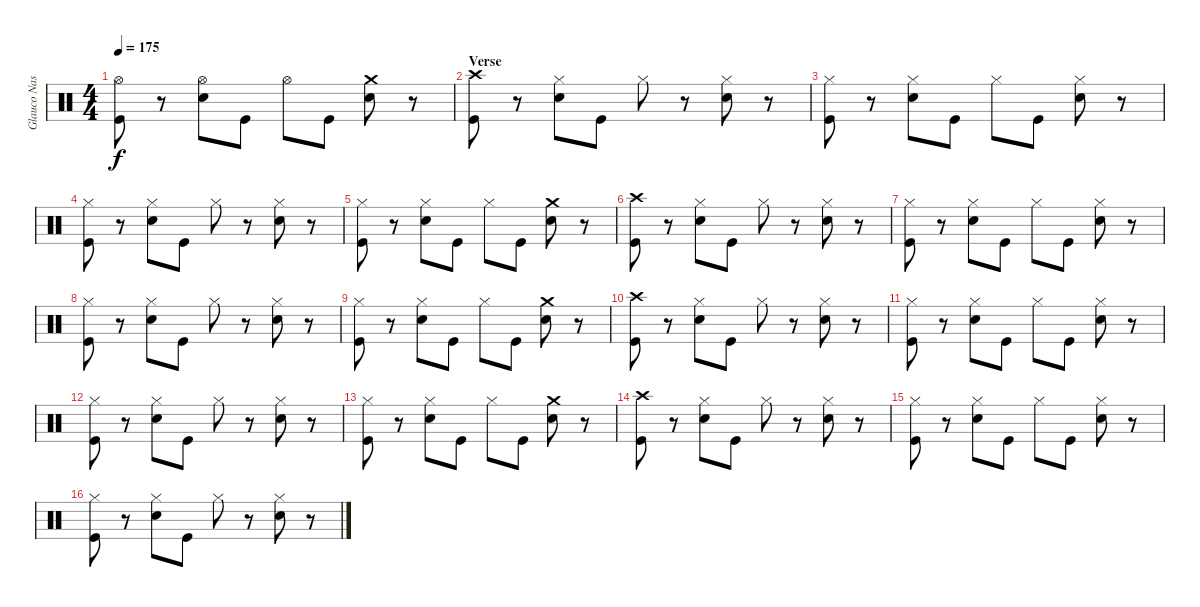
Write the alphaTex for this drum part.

\track ("Glauco Nastácia" "Glauco Nas") {instrument percussion}
\staff {score}
\articulation defaults
\ts (4 4)
\tempo 175
\clef neutral
\ks c
("Hi-Hat (open)" "Kick (hit)").8{dy f} r.8 ("Hi-Hat (open)" "Electric Snare (hit)").8 "Kick (hit)".8 "Hi-Hat (open)".8 "Kick (hit)".8 ("Crash medium (hit)" "Electric Snare (hit)").8 r.8 |
\section ("" "Verse")
("Crash high (hit)" "Kick (hit)").8 r.8 ("Hi-Hat (closed)" "Electric Snare (hit)").8 "Kick (hit)".8 "Hi-Hat (closed)".8 r.8 ("Hi-Hat (closed)" "Electric Snare (hit)").8 r.8 |
("Hi-Hat (closed)" "Kick (hit)").8 r.8 ("Hi-Hat (closed)" "Electric Snare (hit)").8 "Kick (hit)".8 "Hi-Hat (closed)".8 "Kick (hit)".8 ("Hi-Hat (closed)" "Electric Snare (hit)").8 r.8 |
("Hi-Hat (closed)" "Kick (hit)").8 r.8 ("Hi-Hat (closed)" "Electric Snare (hit)").8 "Kick (hit)".8 "Hi-Hat (closed)".8 r.8 ("Hi-Hat (closed)" "Electric Snare (hit)").8 r.8 |
("Hi-Hat (closed)" "Kick (hit)").8 r.8 ("Hi-Hat (closed)" "Electric Snare (hit)").8 "Kick (hit)".8 "Hi-Hat (closed)".8 "Kick (hit)".8 ("Crash medium (hit)" "Electric Snare (hit)").8 r.8 |
("Crash high (hit)" "Kick (hit)").8 r.8 ("Hi-Hat (closed)" "Electric Snare (hit)").8 "Kick (hit)".8 "Hi-Hat (closed)".8 r.8 ("Hi-Hat (closed)" "Electric Snare (hit)").8 r.8 |
("Hi-Hat (closed)" "Kick (hit)").8 r.8 ("Hi-Hat (closed)" "Electric Snare (hit)").8 "Kick (hit)".8 "Hi-Hat (closed)".8 "Kick (hit)".8 ("Hi-Hat (closed)" "Electric Snare (hit)").8 r.8 |
("Hi-Hat (closed)" "Kick (hit)").8 r.8 ("Hi-Hat (closed)" "Electric Snare (hit)").8 "Kick (hit)".8 "Hi-Hat (closed)".8 r.8 ("Hi-Hat (closed)" "Electric Snare (hit)").8 r.8 |
("Hi-Hat (closed)" "Kick (hit)").8 r.8 ("Hi-Hat (closed)" "Electric Snare (hit)").8 "Kick (hit)".8 "Hi-Hat (closed)".8 "Kick (hit)".8 ("Crash medium (hit)" "Electric Snare (hit)").8 r.8 |
("Crash high (hit)" "Kick (hit)").8 r.8 ("Hi-Hat (closed)" "Electric Snare (hit)").8 "Kick (hit)".8 "Hi-Hat (closed)".8 r.8 ("Hi-Hat (closed)" "Electric Snare (hit)").8 r.8 |
("Hi-Hat (closed)" "Kick (hit)").8 r.8 ("Hi-Hat (closed)" "Electric Snare (hit)").8 "Kick (hit)".8 "Hi-Hat (closed)".8 "Kick (hit)".8 ("Hi-Hat (closed)" "Electric Snare (hit)").8 r.8 |
("Hi-Hat (closed)" "Kick (hit)").8 r.8 ("Hi-Hat (closed)" "Electric Snare (hit)").8 "Kick (hit)".8 "Hi-Hat (closed)".8 r.8 ("Hi-Hat (closed)" "Electric Snare (hit)").8 r.8 |
("Hi-Hat (closed)" "Kick (hit)").8 r.8 ("Hi-Hat (closed)" "Electric Snare (hit)").8 "Kick (hit)".8 "Hi-Hat (closed)".8 "Kick (hit)".8 ("Crash medium (hit)" "Electric Snare (hit)").8 r.8 |
("Crash high (hit)" "Kick (hit)").8 r.8 ("Hi-Hat (closed)" "Electric Snare (hit)").8 "Kick (hit)".8 "Hi-Hat (closed)".8 r.8 ("Hi-Hat (closed)" "Electric Snare (hit)").8 r.8 |
("Hi-Hat (closed)" "Kick (hit)").8 r.8 ("Hi-Hat (closed)" "Electric Snare (hit)").8 "Kick (hit)".8 "Hi-Hat (closed)".8 "Kick (hit)".8 ("Hi-Hat (closed)" "Electric Snare (hit)").8 r.8 |
("Hi-Hat (closed)" "Kick (hit)").8 r.8 ("Hi-Hat (closed)" "Electric Snare (hit)").8 "Kick (hit)".8 "Hi-Hat (closed)".8 r.8 ("Hi-Hat (closed)" "Electric Snare (hit)").8 r.8
